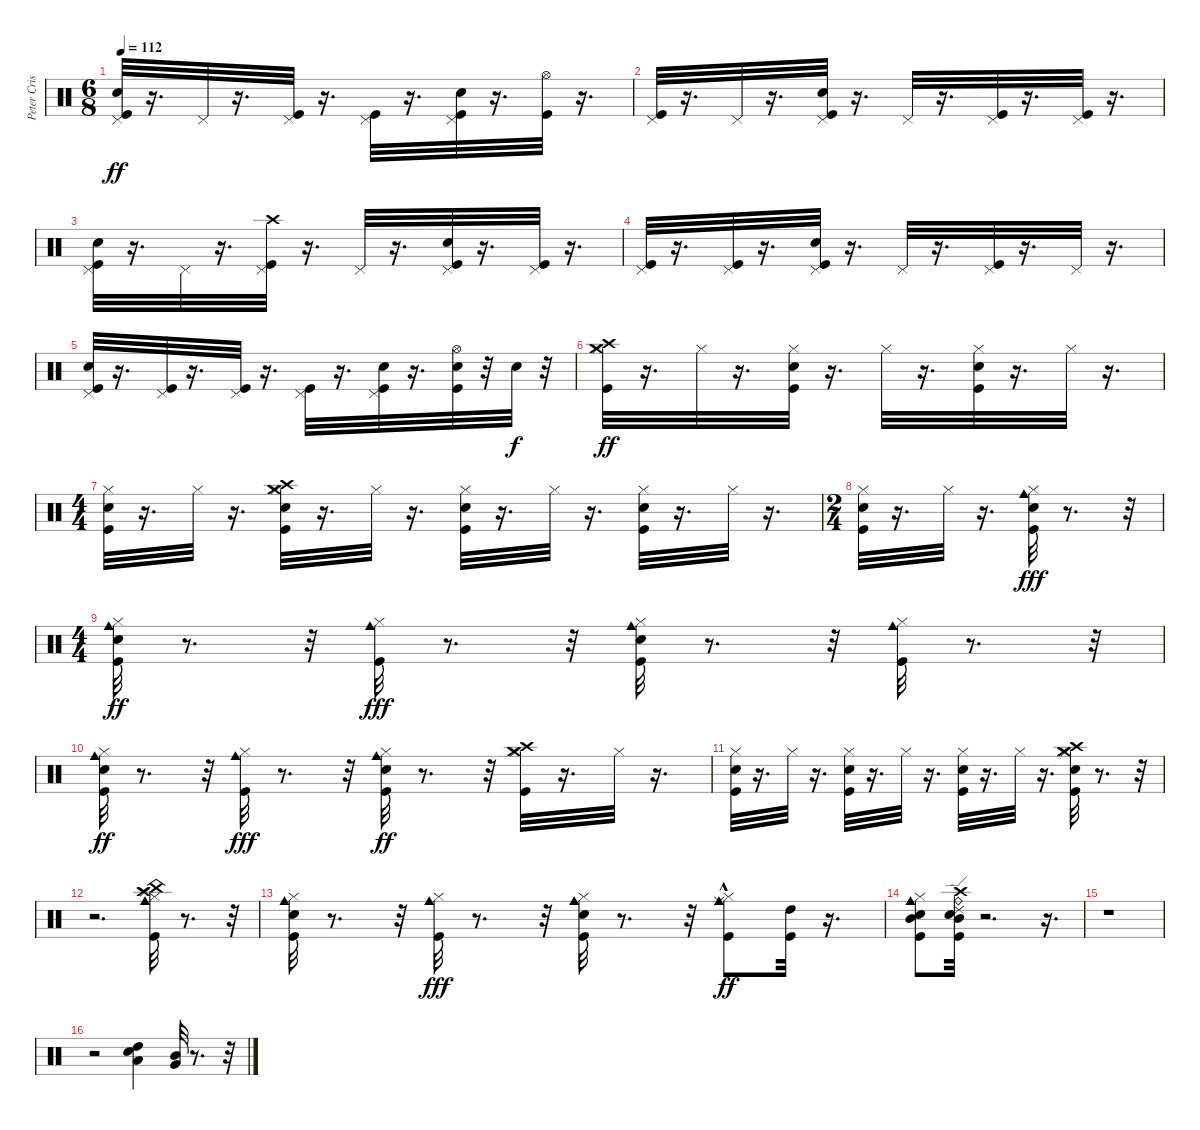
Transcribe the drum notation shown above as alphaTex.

\track ("Peter Criss" "Peter Cris") {instrument percussion}
\staff {score}
\articulation defaults
\ts (6 8)
\tempo 112
\clef neutral
\ks c
("Kick (hit)" "Pedal Hi-Hat (hit)" "Snare (hit) 2").32{dy ff} r.16{d} "Pedal Hi-Hat (hit)".32 r.16{d} ("Kick (hit)" "Pedal Hi-Hat (hit)").32 r.16{d} ("Pedal Hi-Hat (hit)" "Kick (hit)").32 r.16{d} ("Snare (hit) 2" "Pedal Hi-Hat (hit)" "Kick (hit)").32 r.16{d} ("Kick (hit)" "Hi-Hat (open)").32 r.16{d} |
("Kick (hit)" "Pedal Hi-Hat (hit)").32 r.16{d} "Pedal Hi-Hat (hit)".32 r.16{d} ("Kick (hit)" "Pedal Hi-Hat (hit)" "Snare (hit) 2").32 r.16{d} "Pedal Hi-Hat (hit)".32 r.16{d} ("Pedal Hi-Hat (hit)" "Kick (hit)").32 r.16{d} ("Pedal Hi-Hat (hit)" "Kick (hit)").32 r.16{d} |
("Kick (hit)" "Snare (hit) 2" "Pedal Hi-Hat (hit)").32 r.16{d} "Pedal Hi-Hat (hit)".32 r.16{d} ("Crash high (hit)" "Pedal Hi-Hat (hit)" "Kick (hit)").32 r.16{d} "Pedal Hi-Hat (hit)".32 r.16{d} ("Snare (hit) 2" "Pedal Hi-Hat (hit)" "Kick (hit)").32 r.16{d} ("Pedal Hi-Hat (hit)" "Kick (hit)").32 r.16{d} |
("Pedal Hi-Hat (hit)" "Kick (hit)").32 r.16{d} ("Pedal Hi-Hat (hit)" "Kick (hit)").32 r.16{d} ("Pedal Hi-Hat (hit)" "Kick (hit)" "Snare (hit) 2").32 r.16{d} "Pedal Hi-Hat (hit)".32 r.16{d} ("Kick (hit)" "Pedal Hi-Hat (hit)").32 r.16{d} "Pedal Hi-Hat (hit)".32 r.16{d} |
("Kick (hit)" "Snare (hit) 2" "Pedal Hi-Hat (hit)").32 r.16{d} ("Pedal Hi-Hat (hit)" "Kick (hit)").32 r.16{d} ("Kick (hit)" "Pedal Hi-Hat (hit)").32 r.16{d} ("Pedal Hi-Hat (hit)" "Kick (hit)").32 r.16{d} ("Kick (hit)" "Snare (hit) 2" "Pedal Hi-Hat (hit)").32 r.16{d} ("Hi-Hat (open)" "Kick (hit)" "Snare (hit) 2").32 r.32 "Snare (hit) 2".32{dy f} r.32 |
("Kick (hit)" "Crash medium (hit)" "Crash high (hit)" "Hi-Hat (closed)").32{dy ff} r.16{d} "Hi-Hat (closed)".32 r.16{d} ("Kick (hit)" "Snare (hit) 2" "Hi-Hat (closed)").32 r.16{d} "Hi-Hat (closed)".32 r.16{d} ("Kick (hit)" "Snare (hit) 2" "Hi-Hat (closed)").32 r.16{d} "Hi-Hat (closed)".32 r.16{d} |
\ts (4 4)
("Kick (hit)" "Snare (hit) 2" "Hi-Hat (closed)").32 r.16{d} "Hi-Hat (closed)".32 r.16{d} ("Snare (hit) 2" "Kick (hit)" "Hi-Hat (closed)" "Crash medium (hit)" "Crash high (hit)").32 r.16{d} "Hi-Hat (closed)".32 r.16{d} ("Kick (hit)" "Hi-Hat (closed)" "Snare (hit) 2").32 r.16{d} "Hi-Hat (closed)".32 r.16{d} ("Hi-Hat (closed)" "Snare (hit) 2" "Kick (hit)").32 r.16{d} "Hi-Hat (closed)".32 r.16{d} |
\ts (2 4)
("Kick (hit)" "Hi-Hat (closed)" "Snare (hit) 2").32 r.16{d} "Hi-Hat (closed)".32 r.16{d} ("Snare (hit) 2" "Kick (hit)" "Cowbell medium (hit)" "Hi-Hat (closed)").32{dy fff} r.8{d} r.32 |
\ts (4 4)
("Kick (hit)" "Cowbell medium (hit)" "Snare (hit) 2" "Hi-Hat (closed)").32{dy ff} r.8{d} r.32 ("Cowbell medium (hit)" "Kick (hit)" "Hi-Hat (closed)").32{dy fff} r.8{d} r.32 ("Snare (hit) 2" "Hi-Hat (closed)" "Kick (hit)" "Cowbell medium (hit)").32 r.8{d} r.32 ("Hi-Hat (closed)" "Kick (hit)" "Cowbell medium (hit)").32 r.8{d} r.32 |
("Cowbell medium (hit)" "Hi-Hat (closed)" "Snare (hit) 2" "Kick (hit)").32{dy ff} r.8{d} r.32 ("Kick (hit)" "Hi-Hat (closed)" "Cowbell medium (hit)").32{dy fff} r.8{d} r.32 ("Hi-Hat (closed)" "Cowbell medium (hit)" "Snare (hit) 2" "Kick (hit)").32{dy ff} r.8{d} r.32 ("Crash high (hit)" "Hi-Hat (closed)" "Kick (hit)" "Crash medium (hit)").32 r.16{d} "Hi-Hat (closed)".32 r.16{d} |
("Hi-Hat (closed)" "Kick (hit)" "Snare (hit) 2").32 r.16{d} "Hi-Hat (closed)".32 r.16{d} ("Kick (hit)" "Snare (hit) 2" "Hi-Hat (closed)").32 r.16{d} "Hi-Hat (closed)".32 r.16{d} ("Hi-Hat (closed)" "Kick (hit)" "Snare (hit) 2").32 r.16{d} "Hi-Hat (closed)".32 r.16{d} ("Hi-Hat (closed)" "Snare (hit) 2" "Crash high (hit)" "Kick (hit)" "Crash medium (hit)").32 r.8{d} r.32 |
r.2{d} ("Splash (hit)" "Crash high (hit)" "China (hit)" "Hi-Hat (closed)" "Cowbell medium (hit)" "Kick (hit)").32 r.8{d} r.32 |
("Kick (hit)" "Hi-Hat (closed)" "Cowbell medium (hit)" "Snare (hit) 2").32 r.8{d} r.32 ("Cowbell medium (hit)" "Hi-Hat (closed)" "Kick (hit)").32{dy fff} r.8{d} r.32 ("Cowbell medium (hit)" "Kick (hit)" "Snare (hit) 2" "Hi-Hat (closed)").32 r.8{d} r.32 ("Ride (middle)"{hac} "Cowbell medium (hit)" "Hi-Hat (closed)" "Kick (hit)").8{dy ff} ("High Tom (hit)" "Kick (hit)").32 r.16{d} |
("Mid Tom (hit)" "Hi-Hat (closed)" "Snare (hit) 2" "Cowbell medium (hit)" "Kick (hit)").8 ("Snare (hit) 2" "Ride (edge) 2" "Crash high (hit)" "Ride (bell)" "Mid Tom (hit)" "Kick (hit)").32 r.2{d} r.16{d} |
r.1 |
r.2 ("Low Tom (hit)" "High Tom (hit)" "Electric Snare (hit)").4 ("Mid Tom (hit)" "Very Low Tom (hit)").32 r.8{d} r.32
